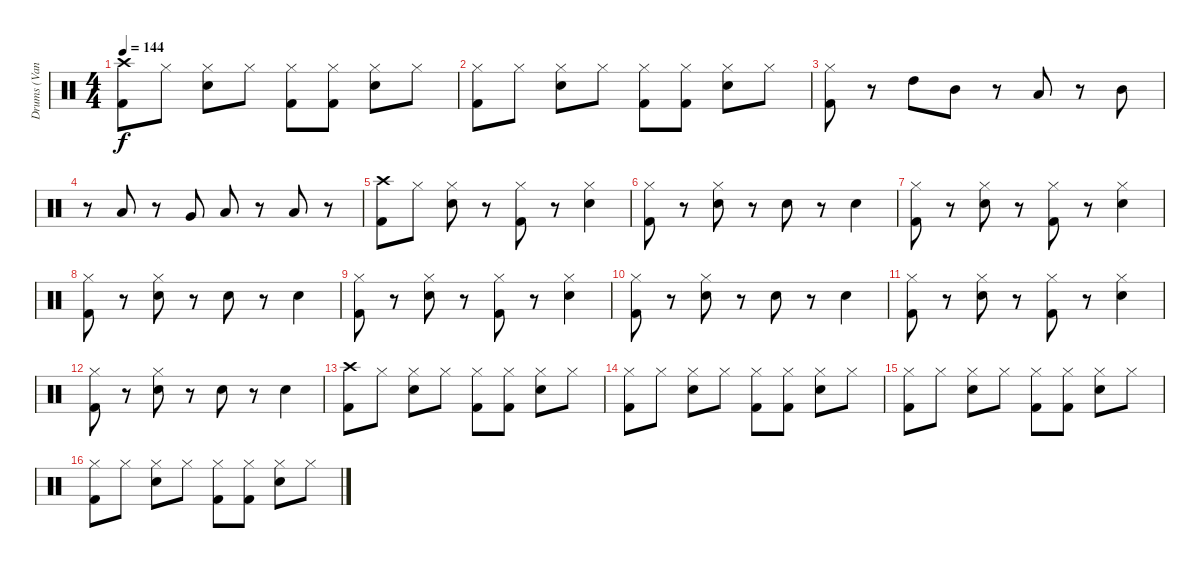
\track ("Drums (Vandel)" "Drums (Van") {instrument percussion}
\staff {score}
\articulation defaults
\ts (4 4)
\tempo 144
\clef neutral
\ks c
("Crash high (hit)" "Kick (hit) 2").8{dy f} "Hi-Hat (closed)".8 ("Hi-Hat (closed)" "Snare (hit) 2").8 "Hi-Hat (closed)".8 ("Hi-Hat (closed)" "Kick (hit) 2").8 ("Hi-Hat (closed)" "Kick (hit) 2").8 ("Hi-Hat (closed)" "Snare (hit) 2").8 "Hi-Hat (closed)".8 |
("Hi-Hat (closed)" "Kick (hit) 2").8 "Hi-Hat (closed)".8 ("Hi-Hat (closed)" "Snare (hit) 2").8 "Hi-Hat (closed)".8 ("Hi-Hat (closed)" "Kick (hit) 2").8 ("Hi-Hat (closed)" "Kick (hit) 2").8 ("Hi-Hat (closed)" "Snare (hit) 2").8 "Hi-Hat (closed)".8 |
("Hi-Hat (closed)" "Kick (hit) 2").8 r.8 "High Tom (hit)".8 "Mid Tom (hit)".8 r.8 "Low Tom (hit)".8 r.8 "Mid Tom (hit)".8 |
r.8 "Low Tom (hit)".8 r.8 "Very Low Tom (hit)".8 "Low Floor Tom (hit)".8 r.8 "Low Floor Tom (hit)".8 r.8 |
("Crash high (hit)" "Kick (hit) 2").8 "Hi-Hat (closed)".8 ("Hi-Hat (closed)" "Snare (hit) 2").8 r.8 ("Hi-Hat (closed)" "Kick (hit) 2").8 r.8 ("Hi-Hat (closed)" "Snare (hit) 2").4 |
("Hi-Hat (closed)" "Kick (hit) 2").8 r.8 ("Hi-Hat (closed)" "Snare (hit) 2").8 r.8 "Snare (hit) 2".8 r.8 "Snare (hit) 2".4 |
("Hi-Hat (closed)" "Kick (hit) 2").8 r.8 ("Hi-Hat (closed)" "Snare (hit) 2").8 r.8 ("Hi-Hat (closed)" "Kick (hit) 2").8 r.8 ("Hi-Hat (closed)" "Snare (hit) 2").4 |
("Hi-Hat (closed)" "Kick (hit) 2").8 r.8 ("Hi-Hat (closed)" "Snare (hit) 2").8 r.8 "Snare (hit) 2".8 r.8 "Snare (hit) 2".4 |
("Hi-Hat (closed)" "Kick (hit) 2").8 r.8 ("Hi-Hat (closed)" "Snare (hit) 2").8 r.8 ("Hi-Hat (closed)" "Kick (hit) 2").8 r.8 ("Hi-Hat (closed)" "Snare (hit) 2").4 |
("Hi-Hat (closed)" "Kick (hit) 2").8 r.8 ("Hi-Hat (closed)" "Snare (hit) 2").8 r.8 "Snare (hit) 2".8 r.8 "Snare (hit) 2".4 |
("Hi-Hat (closed)" "Kick (hit) 2").8 r.8 ("Hi-Hat (closed)" "Snare (hit) 2").8 r.8 ("Hi-Hat (closed)" "Kick (hit) 2").8 r.8 ("Hi-Hat (closed)" "Snare (hit) 2").4 |
("Hi-Hat (closed)" "Kick (hit) 2").8 r.8 ("Hi-Hat (closed)" "Snare (hit) 2").8 r.8 "Snare (hit) 2".8 r.8 "Snare (hit) 2".4 |
("Crash high (hit)" "Kick (hit) 2").8 "Hi-Hat (closed)".8 ("Hi-Hat (closed)" "Snare (hit) 2").8 "Hi-Hat (closed)".8 ("Hi-Hat (closed)" "Kick (hit) 2").8 ("Hi-Hat (closed)" "Kick (hit) 2").8 ("Hi-Hat (closed)" "Snare (hit) 2").8 "Hi-Hat (closed)".8 |
("Hi-Hat (closed)" "Kick (hit) 2").8 "Hi-Hat (closed)".8 ("Hi-Hat (closed)" "Snare (hit) 2").8 "Hi-Hat (closed)".8 ("Hi-Hat (closed)" "Kick (hit) 2").8 ("Hi-Hat (closed)" "Kick (hit) 2").8 ("Hi-Hat (closed)" "Snare (hit) 2").8 "Hi-Hat (closed)".8 |
("Hi-Hat (closed)" "Kick (hit) 2").8 "Hi-Hat (closed)".8 ("Hi-Hat (closed)" "Snare (hit) 2").8 "Hi-Hat (closed)".8 ("Hi-Hat (closed)" "Kick (hit) 2").8 ("Hi-Hat (closed)" "Kick (hit) 2").8 ("Hi-Hat (closed)" "Snare (hit) 2").8 "Hi-Hat (closed)".8 |
("Hi-Hat (closed)" "Kick (hit) 2").8 "Hi-Hat (closed)".8 ("Hi-Hat (closed)" "Snare (hit) 2").8 "Hi-Hat (closed)".8 ("Hi-Hat (closed)" "Kick (hit) 2").8 ("Hi-Hat (closed)" "Kick (hit) 2").8 ("Hi-Hat (closed)" "Snare (hit) 2").8 "Hi-Hat (closed)".8
